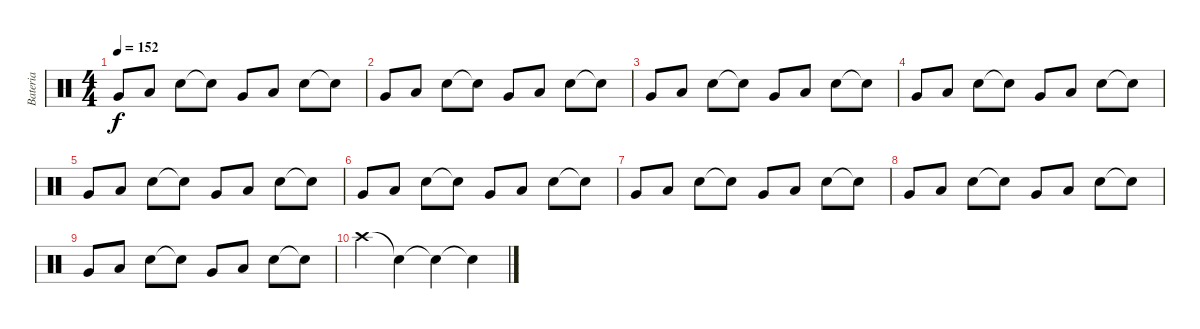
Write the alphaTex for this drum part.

\track ("Bateria" "Bateria") {instrument percussion}
\staff {score}
\articulation defaults
\ts (4 4)
\tempo 152
\clef neutral
\ks c "Very Low Tom (hit)".8{dy f} "Low Floor Tom (hit)".8 "Snare (hit) 2".8 "Snare (hit)"{t}.8 "Very Low Tom (hit)".8 "Low Floor Tom (hit)".8 "Snare (hit) 2".8 "Snare (hit)"{t}.8
|
"Very Low Tom (hit)".8 "Low Floor Tom (hit)".8 "Snare (hit) 2".8 "Snare (hit)"{t}.8 "Very Low Tom (hit)".8 "Low Floor Tom (hit)".8 "Snare (hit) 2".8 "Snare (hit)"{t}.8 |
"Very Low Tom (hit)".8 "Low Floor Tom (hit)".8 "Snare (hit) 2".8 "Snare (hit)"{t}.8 "Very Low Tom (hit)".8 "Low Floor Tom (hit)".8 "Snare (hit) 2".8 "Snare (hit)"{t}.8 |
"Very Low Tom (hit)".8 "Low Floor Tom (hit)".8 "Snare (hit) 2".8 "Snare (hit)"{t}.8 "Very Low Tom (hit)".8 "Low Floor Tom (hit)".8 "Snare (hit) 2".8 "Snare (hit)"{t}.8 |
"Very Low Tom (hit)".8 "Low Floor Tom (hit)".8 "Snare (hit) 2".8 "Snare (hit)"{t}.8 "Very Low Tom (hit)".8 "Low Floor Tom (hit)".8 "Snare (hit) 2".8 "Snare (hit)"{t}.8 |
"Very Low Tom (hit)".8 "Low Floor Tom (hit)".8 "Snare (hit) 2".8 "Snare (hit)"{t}.8 "Very Low Tom (hit)".8 "Low Floor Tom (hit)".8 "Snare (hit) 2".8 "Snare (hit)"{t}.8 |
"Very Low Tom (hit)".8 "Low Floor Tom (hit)".8 "Snare (hit) 2".8 "Snare (hit)"{t}.8 "Very Low Tom (hit)".8 "Low Floor Tom (hit)".8 "Snare (hit) 2".8 "Snare (hit)"{t}.8 |
"Very Low Tom (hit)".8 "Low Floor Tom (hit)".8 "Snare (hit) 2".8 "Snare (hit)"{t}.8 "Very Low Tom (hit)".8 "Low Floor Tom (hit)".8 "Snare (hit) 2".8 "Snare (hit)"{t}.8 |
"Very Low Tom (hit)".8 "Low Floor Tom (hit)".8 "Snare (hit) 2".8 "Snare (hit)"{t}.8 "Very Low Tom (hit)".8 "Low Floor Tom (hit)".8 "Snare (hit) 2".8 "Snare (hit)"{t}.8 |
"Crash high (hit)".4 "Snare (hit)"{t}.4 "Snare (hit)"{t}.4 "Snare (hit)"{t}.4
